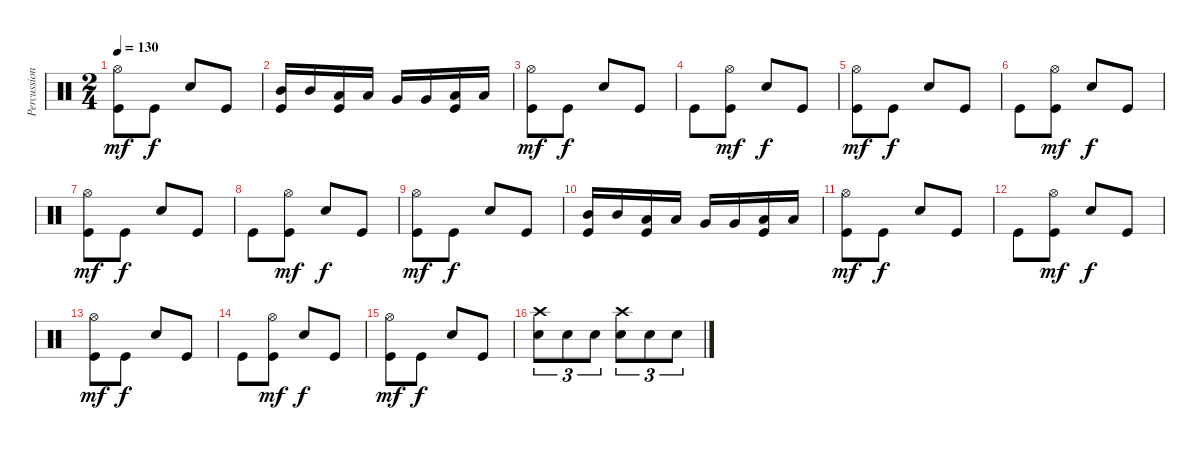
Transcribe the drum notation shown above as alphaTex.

\track ("Percussion" "Percussion") {instrument percussion}
\staff {score}
\articulation defaults
\ts (2 4)
\tempo 130
\clef neutral
\ks c
("Hi-Hat (open)" "Kick (hit)").8{dy mf} "Kick (hit)".8{dy f} "Snare (hit) 2".8 "Kick (hit)".8 |
("Kick (hit)" "Mid Tom (hit)").16 "Mid Tom (hit)".16 ("Kick (hit)" "Low Tom (hit)").16 "Low Tom (hit)".16 "Very Low Tom (hit)".16 "Very Low Tom (hit)".16 ("Kick (hit)" "Low Floor Tom (hit)").16 "Low Floor Tom (hit)".16 |
("Hi-Hat (open)" "Kick (hit)").8{dy mf} "Kick (hit)".8{dy f} "Snare (hit) 2".8 "Kick (hit)".8 |
"Kick (hit)".8 ("Hi-Hat (open)" "Kick (hit)").8{dy mf} "Snare (hit) 2".8{dy f} "Kick (hit)".8 |
("Hi-Hat (open)" "Kick (hit)").8{dy mf} "Kick (hit)".8{dy f} "Snare (hit) 2".8 "Kick (hit)".8 |
"Kick (hit)".8 ("Hi-Hat (open)" "Kick (hit)").8{dy mf} "Snare (hit) 2".8{dy f} "Kick (hit)".8 |
("Hi-Hat (open)" "Kick (hit)").8{dy mf} "Kick (hit)".8{dy f} "Snare (hit) 2".8 "Kick (hit)".8 |
"Kick (hit)".8 ("Hi-Hat (open)" "Kick (hit)").8{dy mf} "Snare (hit) 2".8{dy f} "Kick (hit)".8 |
("Hi-Hat (open)" "Kick (hit)").8{dy mf} "Kick (hit)".8{dy f} "Snare (hit) 2".8 "Kick (hit)".8 |
("Kick (hit)" "Mid Tom (hit)").16 "Mid Tom (hit)".16 ("Kick (hit)" "Low Tom (hit)").16 "Low Tom (hit)".16 "Very Low Tom (hit)".16 "Very Low Tom (hit)".16 ("Kick (hit)" "Low Floor Tom (hit)").16 "Low Floor Tom (hit)".16 |
("Hi-Hat (open)" "Kick (hit)").8{dy mf} "Kick (hit)".8{dy f} "Snare (hit) 2".8 "Kick (hit)".8 |
"Kick (hit)".8 ("Hi-Hat (open)" "Kick (hit)").8{dy mf} "Snare (hit) 2".8{dy f} "Kick (hit)".8 |
("Hi-Hat (open)" "Kick (hit)").8{dy mf} "Kick (hit)".8{dy f} "Snare (hit) 2".8 "Kick (hit)".8 |
"Kick (hit)".8 ("Hi-Hat (open)" "Kick (hit)").8{dy mf} "Snare (hit) 2".8{dy f} "Kick (hit)".8 |
("Hi-Hat (open)" "Kick (hit)").8{dy mf} "Kick (hit)".8{dy f} "Snare (hit) 2".8 "Kick (hit)".8 |
("Snare (hit) 2" "Crash high (hit)").8{tu (3 2)} "Snare (hit) 2".8{tu (3 2)} "Snare (hit) 2".8{tu (3 2)} ("Snare (hit) 2" "Crash high (hit)").8{tu (3 2)} "Snare (hit) 2".8{tu (3 2)} "Snare (hit) 2".8{tu (3 2)}
